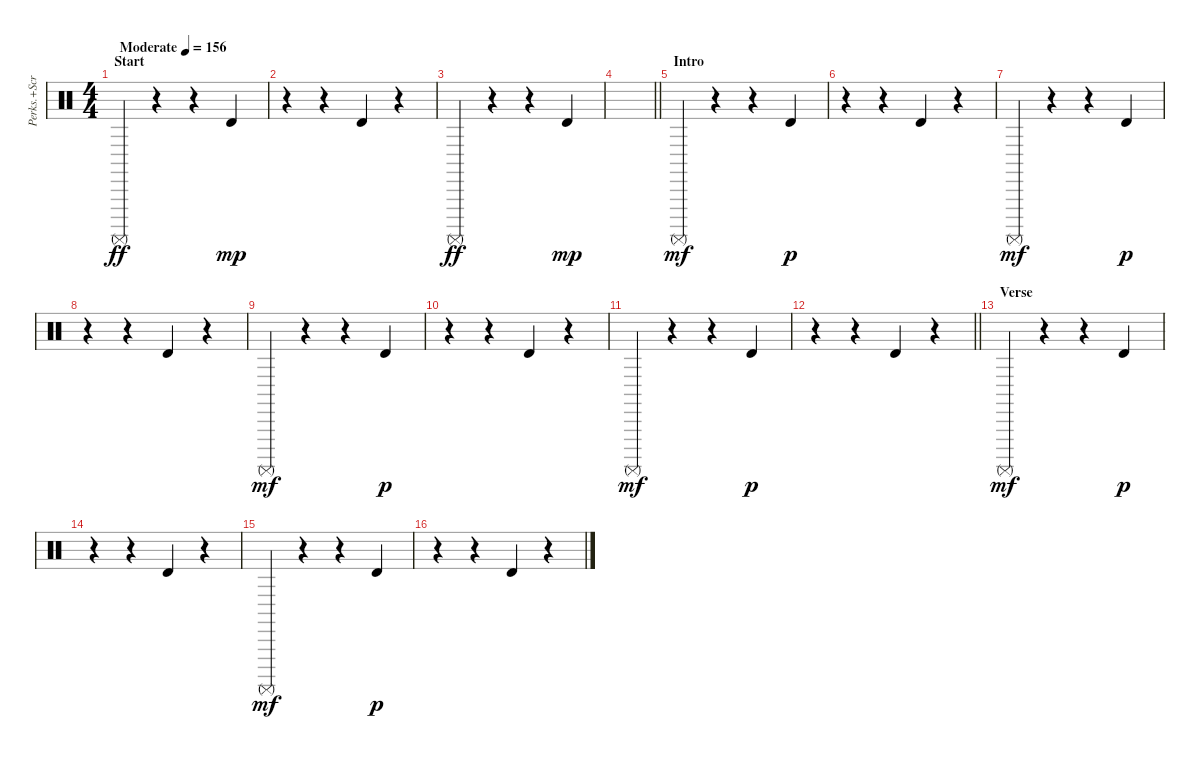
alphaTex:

\track ("Perks.+Scratch" "Perks.+Scr") {instrument percussion}
\staff {score}
\articulation defaults
\ts (4 4)
\section ("" "Start")
\tempo (156 "Moderate")
\clef neutral
\ks c "Surdo (mute)".4{dy ff}
r.4 r.4 "Timbale high (hit)".4{dy mp} |
r.4 r.4 "Timbale high (hit)".4 r.4 |
"Surdo (mute)".4{dy ff} r.4 r.4 "Timbale high (hit)".4{dy mp} |
\barLineRight lightlight
|
\section ("" "Intro")
"Surdo (mute)".4{dy mf} r.4 r.4 "Timbale high (hit)".4{dy p} |
r.4 r.4 "Timbale high (hit)".4 r.4 |
"Surdo (mute)".4{dy mf} r.4 r.4 "Timbale high (hit)".4{dy p} |
r.4 r.4 "Timbale high (hit)".4 r.4 |
"Surdo (mute)".4{dy mf} r.4 r.4 "Timbale high (hit)".4{dy p} |
r.4 r.4 "Timbale high (hit)".4 r.4 |
"Surdo (mute)".4{dy mf} r.4 r.4 "Timbale high (hit)".4{dy p} |
\barLineRight lightlight
r.4 r.4 "Timbale high (hit)".4 r.4 |
\section ("" "Verse")
"Surdo (mute)".4{dy mf} r.4 r.4 "Timbale high (hit)".4{dy p} |
r.4 r.4 "Timbale high (hit)".4 r.4 |
"Surdo (mute)".4{dy mf} r.4 r.4 "Timbale high (hit)".4{dy p} |
r.4 r.4 "Timbale high (hit)".4 r.4
